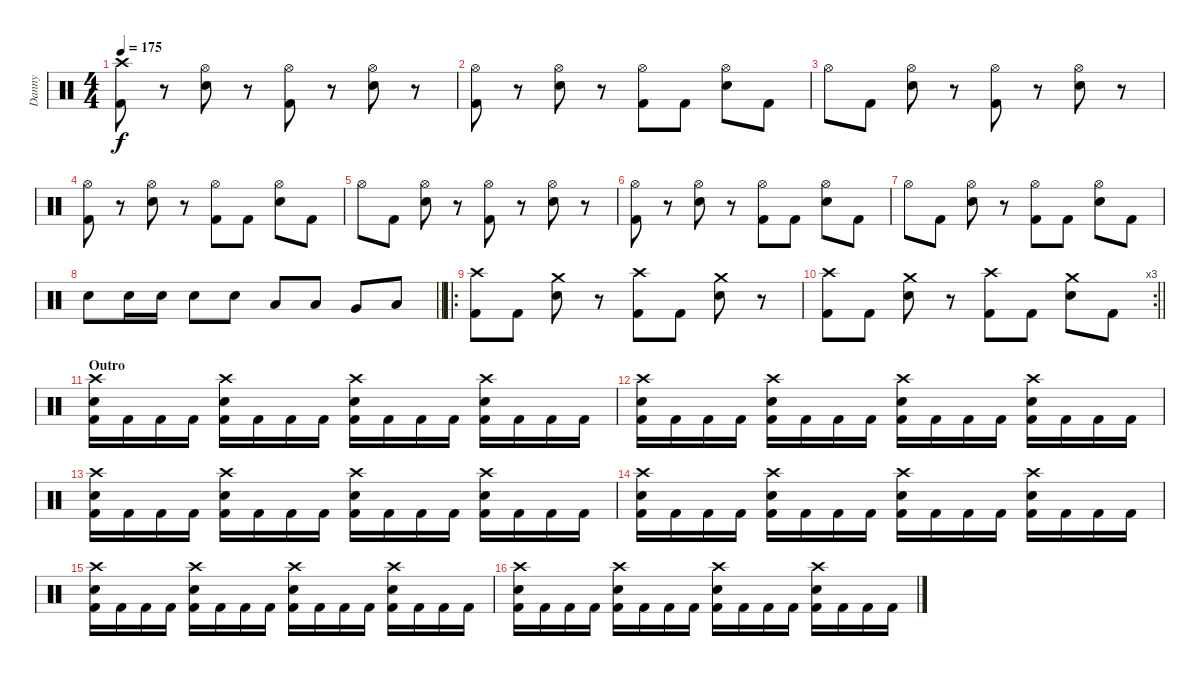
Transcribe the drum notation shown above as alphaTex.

\track ("Danny" "Danny") {instrument percussion}
\staff {score}
\articulation defaults
\ts (4 4)
\tempo 175
\clef neutral
\ks c
("Crash high (hit)" "Kick (hit) 2").8{dy f} r.8 ("Hi-Hat (open)" "Electric Snare (hit)").8 r.8 ("Hi-Hat (open)" "Kick (hit) 2").8 r.8 ("Hi-Hat (open)" "Electric Snare (hit)").8 r.8 |
("Hi-Hat (open)" "Kick (hit) 2").8 r.8 ("Hi-Hat (open)" "Electric Snare (hit)").8 r.8 ("Hi-Hat (open)" "Kick (hit) 2").8 "Kick (hit) 2".8 ("Hi-Hat (open)" "Electric Snare (hit)").8 "Kick (hit) 2".8 |
"Hi-Hat (open)".8 "Kick (hit) 2".8 ("Hi-Hat (open)" "Electric Snare (hit)").8 r.8 ("Hi-Hat (open)" "Kick (hit) 2").8 r.8 ("Hi-Hat (open)" "Electric Snare (hit)").8 r.8 |
("Hi-Hat (open)" "Kick (hit) 2").8 r.8 ("Hi-Hat (open)" "Electric Snare (hit)").8 r.8 ("Hi-Hat (open)" "Kick (hit) 2").8 "Kick (hit) 2".8 ("Hi-Hat (open)" "Electric Snare (hit)").8 "Kick (hit) 2".8 |
"Hi-Hat (open)".8 "Kick (hit) 2".8 ("Hi-Hat (open)" "Electric Snare (hit)").8 r.8 ("Hi-Hat (open)" "Kick (hit) 2").8 r.8 ("Hi-Hat (open)" "Electric Snare (hit)").8 r.8 |
("Hi-Hat (open)" "Kick (hit) 2").8 r.8 ("Hi-Hat (open)" "Electric Snare (hit)").8 r.8 ("Hi-Hat (open)" "Kick (hit) 2").8 "Kick (hit) 2".8 ("Hi-Hat (open)" "Electric Snare (hit)").8 "Kick (hit) 2".8 |
"Hi-Hat (open)".8 "Kick (hit) 2".8 ("Hi-Hat (open)" "Electric Snare (hit)").8 r.8 ("Hi-Hat (open)" "Kick (hit) 2").8 "Kick (hit) 2".8 ("Hi-Hat (open)" "Electric Snare (hit)").8 "Kick (hit) 2".8 |
\barLineRight lightlight "Electric Snare (hit)".8 "Electric Snare (hit)".16 "Electric Snare (hit)".16 "Electric Snare (hit)".8 "Electric Snare (hit)".8 "Low Tom (hit)".8 "Low Tom (hit)".8 "Very Low Tom (hit)".8 "Low Floor Tom (hit)".8
|
\ro
("Crash high (hit)" "Kick (hit) 2").8 "Kick (hit) 2".8 ("Crash medium (hit)" "Electric Snare (hit)").8 r.8 ("Crash high (hit)" "Kick (hit) 2").8 "Kick (hit) 2".8 ("Crash medium (hit)" "Electric Snare (hit)").8 r.8 |
\rc 3
\barLineRight lightlight
("Crash high (hit)" "Kick (hit) 2").8 "Kick (hit) 2".8 ("Crash medium (hit)" "Electric Snare (hit)").8 r.8 ("Crash high (hit)" "Kick (hit) 2").8 "Kick (hit) 2".8 ("Crash medium (hit)" "Electric Snare (hit)").8 "Kick (hit) 2".8 |
\section ("" "Outro ")
("Crash high (hit)" "Electric Snare (hit)" "Kick (hit) 2").16 "Kick (hit) 2".16 "Kick (hit) 2".16 "Kick (hit) 2".16 ("Crash high (hit)" "Electric Snare (hit)" "Kick (hit) 2").16 "Kick (hit) 2".16 "Kick (hit) 2".16 "Kick (hit) 2".16 ("Crash high (hit)" "Electric Snare (hit)" "Kick (hit) 2").16 "Kick (hit) 2".16 "Kick (hit) 2".16 "Kick (hit) 2".16 ("Crash high (hit)" "Electric Snare (hit)" "Kick (hit) 2").16 "Kick (hit) 2".16 "Kick (hit) 2".16 "Kick (hit) 2".16 |
("Crash high (hit)" "Electric Snare (hit)" "Kick (hit) 2").16 "Kick (hit) 2".16 "Kick (hit) 2".16 "Kick (hit) 2".16 ("Crash high (hit)" "Electric Snare (hit)" "Kick (hit) 2").16 "Kick (hit) 2".16 "Kick (hit) 2".16 "Kick (hit) 2".16 ("Crash high (hit)" "Electric Snare (hit)" "Kick (hit) 2").16 "Kick (hit) 2".16 "Kick (hit) 2".16 "Kick (hit) 2".16 ("Crash high (hit)" "Electric Snare (hit)" "Kick (hit) 2").16 "Kick (hit) 2".16 "Kick (hit) 2".16 "Kick (hit) 2".16 |
("Crash high (hit)" "Electric Snare (hit)" "Kick (hit) 2").16 "Kick (hit) 2".16 "Kick (hit) 2".16 "Kick (hit) 2".16 ("Crash high (hit)" "Electric Snare (hit)" "Kick (hit) 2").16 "Kick (hit) 2".16 "Kick (hit) 2".16 "Kick (hit) 2".16 ("Crash high (hit)" "Electric Snare (hit)" "Kick (hit) 2").16 "Kick (hit) 2".16 "Kick (hit) 2".16 "Kick (hit) 2".16 ("Crash high (hit)" "Electric Snare (hit)" "Kick (hit) 2").16 "Kick (hit) 2".16 "Kick (hit) 2".16 "Kick (hit) 2".16 |
("Crash high (hit)" "Electric Snare (hit)" "Kick (hit) 2").16 "Kick (hit) 2".16 "Kick (hit) 2".16 "Kick (hit) 2".16 ("Crash high (hit)" "Electric Snare (hit)" "Kick (hit) 2").16 "Kick (hit) 2".16 "Kick (hit) 2".16 "Kick (hit) 2".16 ("Crash high (hit)" "Electric Snare (hit)" "Kick (hit) 2").16 "Kick (hit) 2".16 "Kick (hit) 2".16 "Kick (hit) 2".16 ("Crash high (hit)" "Electric Snare (hit)" "Kick (hit) 2").16 "Kick (hit) 2".16 "Kick (hit) 2".16 "Kick (hit) 2".16 |
("Crash high (hit)" "Electric Snare (hit)" "Kick (hit) 2").16 "Kick (hit) 2".16 "Kick (hit) 2".16 "Kick (hit) 2".16 ("Crash high (hit)" "Electric Snare (hit)" "Kick (hit) 2").16 "Kick (hit) 2".16 "Kick (hit) 2".16 "Kick (hit) 2".16 ("Crash high (hit)" "Electric Snare (hit)" "Kick (hit) 2").16 "Kick (hit) 2".16 "Kick (hit) 2".16 "Kick (hit) 2".16 ("Crash high (hit)" "Electric Snare (hit)" "Kick (hit) 2").16 "Kick (hit) 2".16 "Kick (hit) 2".16 "Kick (hit) 2".16 |
("Crash high (hit)" "Electric Snare (hit)" "Kick (hit) 2").16 "Kick (hit) 2".16 "Kick (hit) 2".16 "Kick (hit) 2".16 ("Crash high (hit)" "Electric Snare (hit)" "Kick (hit) 2").16 "Kick (hit) 2".16 "Kick (hit) 2".16 "Kick (hit) 2".16 ("Crash high (hit)" "Electric Snare (hit)" "Kick (hit) 2").16 "Kick (hit) 2".16 "Kick (hit) 2".16 "Kick (hit) 2".16 ("Crash high (hit)" "Electric Snare (hit)" "Kick (hit) 2").16 "Kick (hit) 2".16 "Kick (hit) 2".16 "Kick (hit) 2".16
